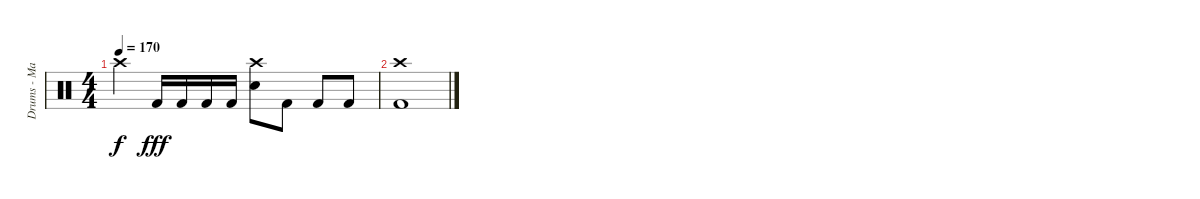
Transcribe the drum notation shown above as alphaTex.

\track ("Drums - Matt Traynor" "Drums - Ma") {instrument percussion}
\staff {score}
\articulation defaults
\ts (4 4)
\tempo 170
\clef neutral
\ks c "Crash high (hit)".4{dy f} "Kick (hit) 2".16{dy fff} "Kick (hit) 2".16 "Kick (hit) 2".16 "Kick (hit) 2".16
("Crash high (hit)" "Snare (hit) 2").8 "Kick (hit) 2".8 "Kick (hit) 2".8 "Kick (hit) 2".8 |
("Crash high (hit)" "Kick (hit) 2").1
